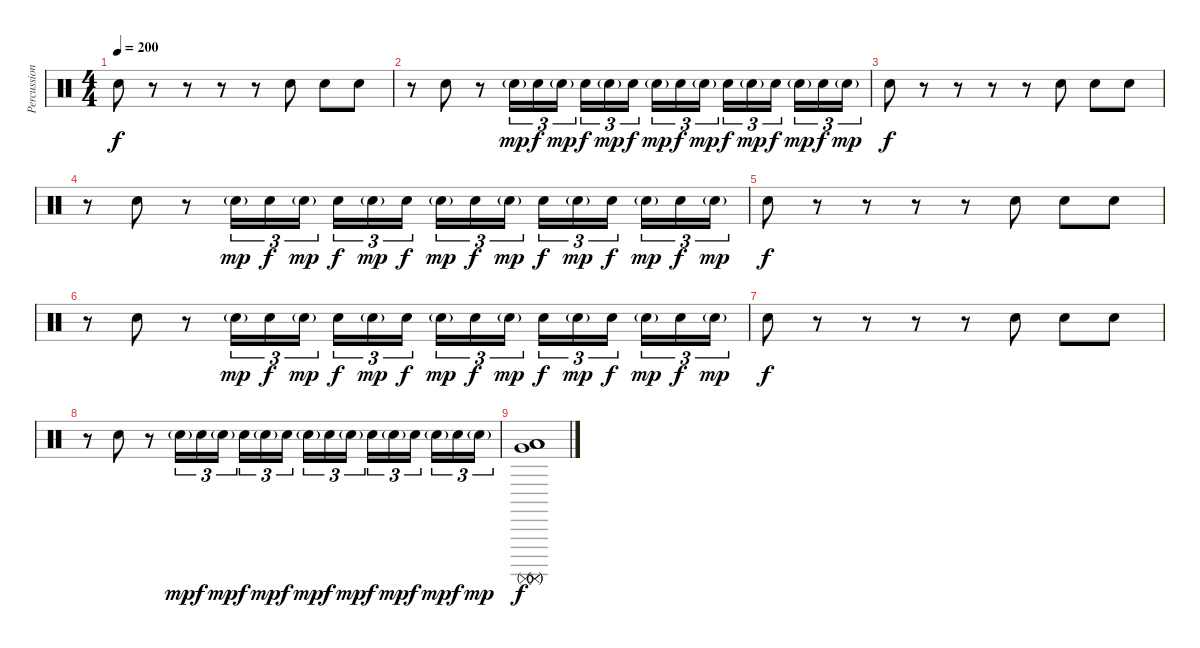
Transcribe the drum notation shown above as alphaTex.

\track ("Percussion" "Percussion") {instrument percussion}
\staff {score}
\articulation defaults
\ts (4 4)
\tempo 200
\clef neutral
\ks c "Snare (hit) 2".8{dy f}
r.8 r.8 r.8 r.8 "Snare (hit) 2".8 "Snare (hit) 2".8 "Snare (hit) 2".8 |
r.8 "Snare (hit) 2".8 r.8 "Snare (hit) 2"{g}.16{tu (3 2) dy mp} "Snare (hit) 2".16{tu (3 2) dy f} "Snare (hit) 2"{g}.16{tu (3 2) dy mp} "Snare (hit) 2".16{tu (3 2) dy f} "Snare (hit) 2"{g}.16{tu (3 2) dy mp} "Snare (hit) 2".16{tu (3 2) dy f beam splitsecondary} "Snare (hit) 2"{g}.16{tu (3 2) dy mp} "Snare (hit) 2".16{tu (3 2) dy f} "Snare (hit) 2"{g}.16{tu (3 2) dy mp} "Snare (hit) 2".16{tu (3 2) dy f} "Snare (hit) 2"{g}.16{tu (3 2) dy mp} "Snare (hit) 2".16{tu (3 2) dy f beam splitsecondary} "Snare (hit) 2"{g}.16{tu (3 2) dy mp} "Snare (hit) 2".16{tu (3 2) dy f} "Snare (hit) 2"{g}.16{tu (3 2) dy mp} |
"Snare (hit) 2".8{dy f} r.8 r.8 r.8 r.8 "Snare (hit) 2".8 "Snare (hit) 2".8 "Snare (hit) 2".8 |
r.8 "Snare (hit) 2".8 r.8 "Snare (hit) 2"{g}.16{tu (3 2) dy mp} "Snare (hit) 2".16{tu (3 2) dy f} "Snare (hit) 2"{g}.16{tu (3 2) dy mp} "Snare (hit) 2".16{tu (3 2) dy f} "Snare (hit) 2"{g}.16{tu (3 2) dy mp} "Snare (hit) 2".16{tu (3 2) dy f beam splitsecondary} "Snare (hit) 2"{g}.16{tu (3 2) dy mp} "Snare (hit) 2".16{tu (3 2) dy f} "Snare (hit) 2"{g}.16{tu (3 2) dy mp} "Snare (hit) 2".16{tu (3 2) dy f} "Snare (hit) 2"{g}.16{tu (3 2) dy mp} "Snare (hit) 2".16{tu (3 2) dy f beam splitsecondary} "Snare (hit) 2"{g}.16{tu (3 2) dy mp} "Snare (hit) 2".16{tu (3 2) dy f} "Snare (hit) 2"{g}.16{tu (3 2) dy mp} |
"Snare (hit) 2".8{dy f} r.8 r.8 r.8 r.8 "Snare (hit) 2".8 "Snare (hit) 2".8 "Snare (hit) 2".8 |
r.8 "Snare (hit) 2".8 r.8 "Snare (hit) 2"{g}.16{tu (3 2) dy mp} "Snare (hit) 2".16{tu (3 2) dy f} "Snare (hit) 2"{g}.16{tu (3 2) dy mp} "Snare (hit) 2".16{tu (3 2) dy f} "Snare (hit) 2"{g}.16{tu (3 2) dy mp} "Snare (hit) 2".16{tu (3 2) dy f beam splitsecondary} "Snare (hit) 2"{g}.16{tu (3 2) dy mp} "Snare (hit) 2".16{tu (3 2) dy f} "Snare (hit) 2"{g}.16{tu (3 2) dy mp} "Snare (hit) 2".16{tu (3 2) dy f} "Snare (hit) 2"{g}.16{tu (3 2) dy mp} "Snare (hit) 2".16{tu (3 2) dy f beam splitsecondary} "Snare (hit) 2"{g}.16{tu (3 2) dy mp} "Snare (hit) 2".16{tu (3 2) dy f} "Snare (hit) 2"{g}.16{tu (3 2) dy mp} |
"Snare (hit) 2".8{dy f} r.8 r.8 r.8 r.8 "Snare (hit) 2".8 "Snare (hit) 2".8 "Snare (hit) 2".8 |
r.8 "Snare (hit) 2".8 r.8 "Snare (hit) 2"{g}.16{tu (3 2) dy mp} "Snare (hit) 2".16{tu (3 2) dy f} "Snare (hit) 2"{g}.16{tu (3 2) dy mp} "Snare (hit) 2".16{tu (3 2) dy f} "Snare (hit) 2"{g}.16{tu (3 2) dy mp} "Snare (hit) 2".16{tu (3 2) dy f beam splitsecondary} "Snare (hit) 2"{g}.16{tu (3 2) dy mp} "Snare (hit) 2".16{tu (3 2) dy f} "Snare (hit) 2"{g}.16{tu (3 2) dy mp} "Snare (hit) 2".16{tu (3 2) dy f} "Snare (hit) 2"{g}.16{tu (3 2) dy mp} "Snare (hit) 2".16{tu (3 2) dy f beam splitsecondary} "Snare (hit) 2"{g}.16{tu (3 2) dy mp} "Snare (hit) 2".16{tu (3 2) dy f} "Snare (hit) 2"{g}.16{tu (3 2) dy mp} |
("Low Floor Tom (hit)" "Surdo (mute)" "Low Tom (hit)" "Surdo (mute)" "Very Low Tom (hit)" "Surdo (mute)").1{dy f volume 16}
